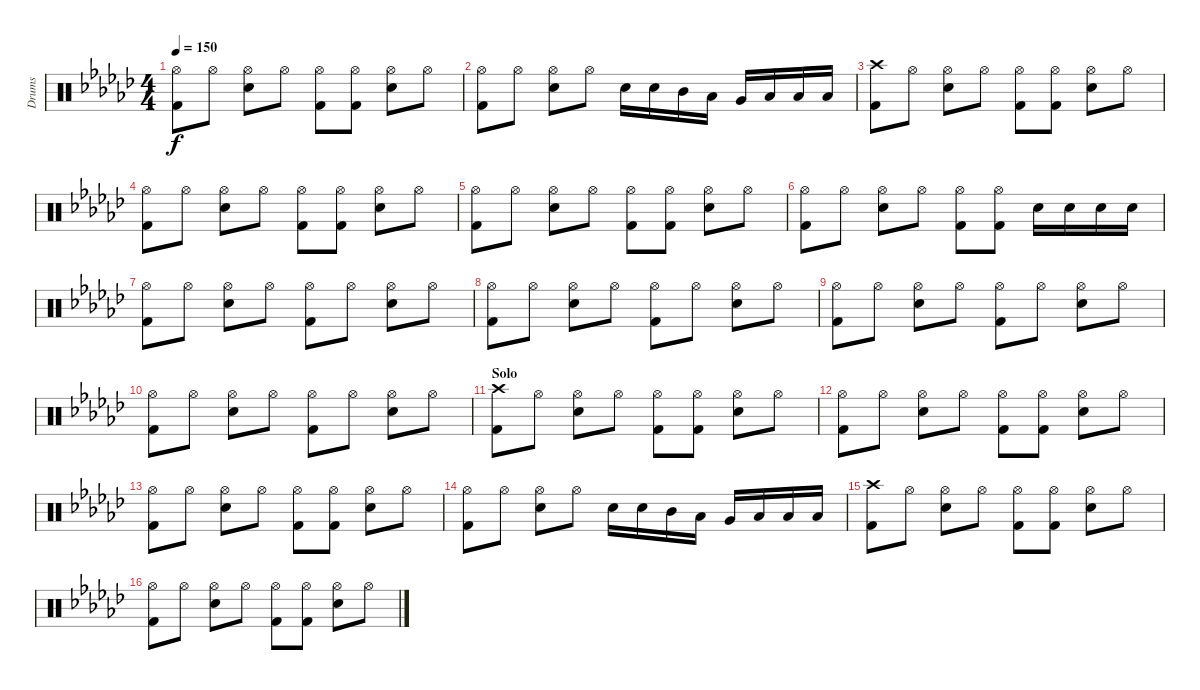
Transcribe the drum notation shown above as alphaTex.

\track ("Drums" "Drums") {instrument percussion}
\staff {score}
\articulation defaults
\ts (4 4)
\tempo 150
\clef neutral
\ks gb
("Hi-Hat (open)" "Kick (hit) 2").8{dy f} "Hi-Hat (open)".8 ("Hi-Hat (open)" "Electric Snare (hit)").8 "Hi-Hat (open)".8 ("Hi-Hat (open)" "Kick (hit) 2").8 ("Hi-Hat (open)" "Kick (hit) 2").8 ("Hi-Hat (open)" "Electric Snare (hit)").8 "Hi-Hat (open)".8 |
("Hi-Hat (open)" "Kick (hit) 2").8 "Hi-Hat (open)".8 ("Hi-Hat (open)" "Electric Snare (hit)").8 "Hi-Hat (open)".8 "Electric Snare (hit)".16 "Electric Snare (hit)".16 "Mid Tom (hit)".16 "Low Tom (hit)".16 "Very Low Tom (hit)".16 "Low Floor Tom (hit)".16 "Low Floor Tom (hit)".16 "Low Floor Tom (hit)".16 |
("Crash high (hit)" "Kick (hit) 2").8 "Hi-Hat (open)".8 ("Hi-Hat (open)" "Electric Snare (hit)").8 "Hi-Hat (open)".8 ("Hi-Hat (open)" "Kick (hit) 2").8 ("Hi-Hat (open)" "Kick (hit) 2").8 ("Hi-Hat (open)" "Electric Snare (hit)").8 "Hi-Hat (open)".8 |
("Hi-Hat (open)" "Kick (hit) 2").8 "Hi-Hat (open)".8 ("Hi-Hat (open)" "Electric Snare (hit)").8 "Hi-Hat (open)".8 ("Hi-Hat (open)" "Kick (hit) 2").8 ("Hi-Hat (open)" "Kick (hit) 2").8 ("Hi-Hat (open)" "Electric Snare (hit)").8 "Hi-Hat (open)".8 |
("Hi-Hat (open)" "Kick (hit) 2").8 "Hi-Hat (open)".8 ("Hi-Hat (open)" "Electric Snare (hit)").8 "Hi-Hat (open)".8 ("Hi-Hat (open)" "Kick (hit) 2").8 ("Hi-Hat (open)" "Kick (hit) 2").8 ("Hi-Hat (open)" "Electric Snare (hit)").8 "Hi-Hat (open)".8 |
("Hi-Hat (open)" "Kick (hit) 2").8 "Hi-Hat (open)".8 ("Hi-Hat (open)" "Electric Snare (hit)").8 "Hi-Hat (open)".8 ("Hi-Hat (open)" "Kick (hit) 2").8 ("Hi-Hat (open)" "Kick (hit) 2").8 "Electric Snare (hit)".16 "Electric Snare (hit)".16 "Electric Snare (hit)".16 "Electric Snare (hit)".16 |
("Hi-Hat (open)" "Kick (hit) 2").8 "Hi-Hat (open)".8 ("Hi-Hat (open)" "Electric Snare (hit)").8 "Hi-Hat (open)".8 ("Hi-Hat (open)" "Kick (hit) 2").8 "Hi-Hat (open)".8 ("Hi-Hat (open)" "Electric Snare (hit)").8 "Hi-Hat (open)".8 |
("Hi-Hat (open)" "Kick (hit) 2").8 "Hi-Hat (open)".8 ("Hi-Hat (open)" "Electric Snare (hit)").8 "Hi-Hat (open)".8 ("Hi-Hat (open)" "Kick (hit) 2").8 "Hi-Hat (open)".8 ("Hi-Hat (open)" "Electric Snare (hit)").8 "Hi-Hat (open)".8 |
("Hi-Hat (open)" "Kick (hit) 2").8 "Hi-Hat (open)".8 ("Hi-Hat (open)" "Electric Snare (hit)").8 "Hi-Hat (open)".8 ("Hi-Hat (open)" "Kick (hit) 2").8 "Hi-Hat (open)".8 ("Hi-Hat (open)" "Electric Snare (hit)").8 "Hi-Hat (open)".8 |
("Hi-Hat (open)" "Kick (hit) 2").8 "Hi-Hat (open)".8 ("Hi-Hat (open)" "Electric Snare (hit)").8 "Hi-Hat (open)".8 ("Hi-Hat (open)" "Kick (hit) 2").8 "Hi-Hat (open)".8 ("Hi-Hat (open)" "Electric Snare (hit)").8 "Hi-Hat (open)".8 |
\section ("" "Solo")
("Crash high (hit)" "Kick (hit) 2").8 "Hi-Hat (open)".8 ("Hi-Hat (open)" "Electric Snare (hit)").8 "Hi-Hat (open)".8 ("Hi-Hat (open)" "Kick (hit) 2").8 ("Hi-Hat (open)" "Kick (hit) 2").8 ("Hi-Hat (open)" "Electric Snare (hit)").8 "Hi-Hat (open)".8 |
("Hi-Hat (open)" "Kick (hit) 2").8 "Hi-Hat (open)".8 ("Hi-Hat (open)" "Electric Snare (hit)").8 "Hi-Hat (open)".8 ("Hi-Hat (open)" "Kick (hit) 2").8 ("Hi-Hat (open)" "Kick (hit) 2").8 ("Hi-Hat (open)" "Electric Snare (hit)").8 "Hi-Hat (open)".8 |
("Hi-Hat (open)" "Kick (hit) 2").8 "Hi-Hat (open)".8 ("Hi-Hat (open)" "Electric Snare (hit)").8 "Hi-Hat (open)".8 ("Hi-Hat (open)" "Kick (hit) 2").8 ("Hi-Hat (open)" "Kick (hit) 2").8 ("Hi-Hat (open)" "Electric Snare (hit)").8 "Hi-Hat (open)".8 |
("Hi-Hat (open)" "Kick (hit) 2").8 "Hi-Hat (open)".8 ("Hi-Hat (open)" "Electric Snare (hit)").8 "Hi-Hat (open)".8 "Electric Snare (hit)".16 "Electric Snare (hit)".16 "Mid Tom (hit)".16 "Low Tom (hit)".16 "Very Low Tom (hit)".16 "Low Floor Tom (hit)".16 "Low Floor Tom (hit)".16 "Low Floor Tom (hit)".16 |
("Crash high (hit)" "Kick (hit) 2").8 "Hi-Hat (open)".8 ("Hi-Hat (open)" "Electric Snare (hit)").8 "Hi-Hat (open)".8 ("Hi-Hat (open)" "Kick (hit) 2").8 ("Hi-Hat (open)" "Kick (hit) 2").8 ("Hi-Hat (open)" "Electric Snare (hit)").8 "Hi-Hat (open)".8 |
("Hi-Hat (open)" "Kick (hit) 2").8 "Hi-Hat (open)".8 ("Hi-Hat (open)" "Electric Snare (hit)").8 "Hi-Hat (open)".8 ("Hi-Hat (open)" "Kick (hit) 2").8 ("Hi-Hat (open)" "Kick (hit) 2").8 ("Hi-Hat (open)" "Electric Snare (hit)").8 "Hi-Hat (open)".8
